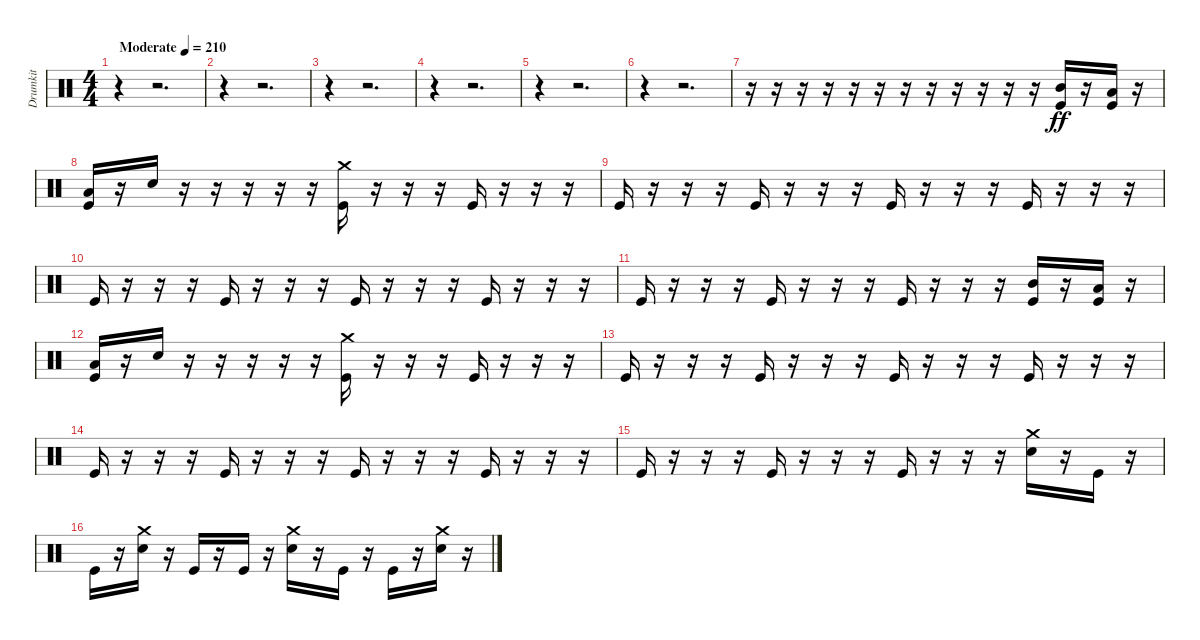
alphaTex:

\track ("Drumkit" "Drumkit") {instrument percussion}
\staff {score}
\articulation defaults
\ts (4 4)
\tempo (210 "Moderate")
\clef neutral
\ks c
r.4{dy ff} r.2{d} |
r.4 r.2{d} |
r.4 r.2{d} |
r.4 r.2{d} |
r.4 r.2{d} |
r.4 r.2{d} |
r.16 r.16 r.16 r.16 r.16 r.16 r.16 r.16 r.16 r.16 r.16 r.16 ("Mid Tom (hit)" "Kick (hit)").16 r.16 ("Low Tom (hit)" "Kick (hit)").16 r.16 |
("Low Floor Tom (hit)" "Kick (hit)").16 r.16 "Snare (hit) 2".16 r.16 r.16 r.16 r.16 r.16 ("Crash medium (hit)" "Kick (hit)").16 r.16 r.16 r.16 "Kick (hit)".16 r.16 r.16 r.16 |
"Kick (hit)".16 r.16 r.16 r.16 "Kick (hit)".16 r.16 r.16 r.16 "Kick (hit)".16 r.16 r.16 r.16 "Kick (hit)".16 r.16 r.16 r.16 |
"Kick (hit)".16 r.16 r.16 r.16 "Kick (hit)".16 r.16 r.16 r.16 "Kick (hit)".16 r.16 r.16 r.16 "Kick (hit)".16 r.16 r.16 r.16 |
"Kick (hit)".16 r.16 r.16 r.16 "Kick (hit)".16 r.16 r.16 r.16 "Kick (hit)".16 r.16 r.16 r.16 ("Mid Tom (hit)" "Kick (hit)").16 r.16 ("Low Tom (hit)" "Kick (hit)").16 r.16 |
("Low Floor Tom (hit)" "Kick (hit)").16 r.16 "Snare (hit) 2".16 r.16 r.16 r.16 r.16 r.16 ("Crash medium (hit)" "Kick (hit)").16 r.16 r.16 r.16 "Kick (hit)".16 r.16 r.16 r.16 |
"Kick (hit)".16 r.16 r.16 r.16 "Kick (hit)".16 r.16 r.16 r.16 "Kick (hit)".16 r.16 r.16 r.16 "Kick (hit)".16 r.16 r.16 r.16 |
"Kick (hit)".16 r.16 r.16 r.16 "Kick (hit)".16 r.16 r.16 r.16 "Kick (hit)".16 r.16 r.16 r.16 "Kick (hit)".16 r.16 r.16 r.16 |
"Kick (hit)".16 r.16 r.16 r.16 "Kick (hit)".16 r.16 r.16 r.16 "Kick (hit)".16 r.16 r.16 r.16 ("Crash medium (hit)" "Snare (hit) 2").16 r.16 "Kick (hit)".16 r.16 |
"Kick (hit)".16 r.16 ("Crash medium (hit)" "Snare (hit) 2").16 r.16 "Kick (hit)".16 r.16 "Kick (hit)".16 r.16 ("Crash medium (hit)" "Snare (hit) 2").16 r.16 "Kick (hit)".16 r.16 "Kick (hit)".16 r.16 ("Crash medium (hit)" "Snare (hit) 2").16 r.16
